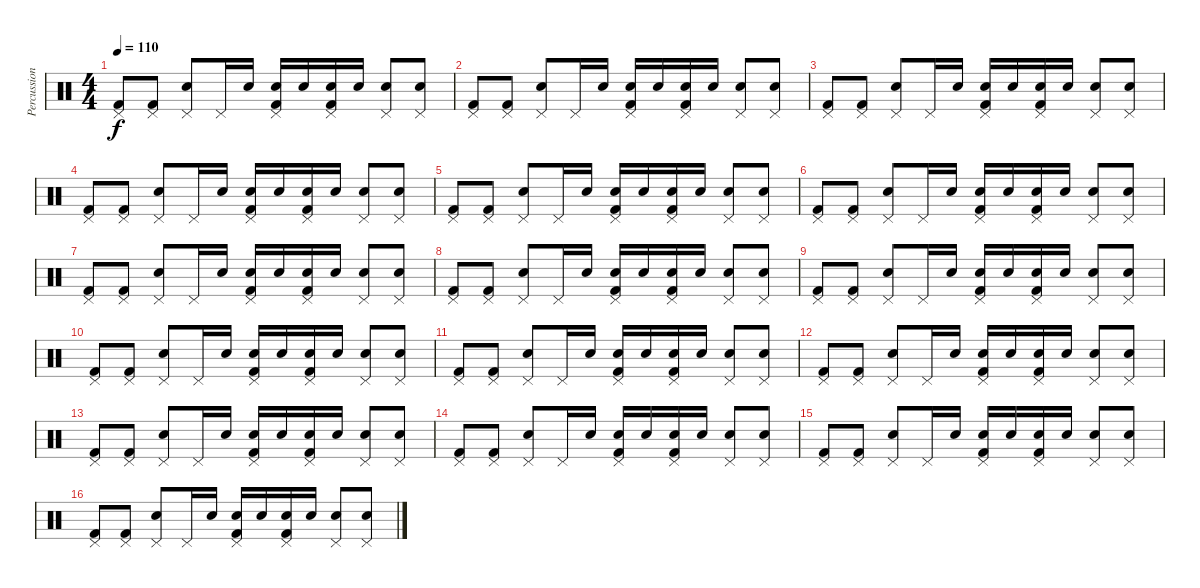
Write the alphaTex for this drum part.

\track ("Percussions" "Percussion") {instrument percussion}
\staff {score}
\articulation defaults
\ts (4 4)
\tempo 110
\clef neutral
\ks c
("Pedal Hi-Hat (hit)" "Kick (hit) 2").8{dy f} ("Pedal Hi-Hat (hit)" "Kick (hit) 2").8 ("Pedal Hi-Hat (hit)" "Electric Snare (hit)").8 "Pedal Hi-Hat (hit)".16 "Electric Snare (hit)".16 ("Pedal Hi-Hat (hit)" "Snare (hit) 2" "Kick (hit) 2").16 "Electric Snare (hit)".16 ("Pedal Hi-Hat (hit)" "Snare (hit) 2" "Kick (hit) 2").16 "Electric Snare (hit)".16 ("Pedal Hi-Hat (hit)" "Electric Snare (hit)").8 ("Pedal Hi-Hat (hit)" "Electric Snare (hit)").8 |
("Pedal Hi-Hat (hit)" "Kick (hit) 2").8 ("Pedal Hi-Hat (hit)" "Kick (hit) 2").8 ("Pedal Hi-Hat (hit)" "Electric Snare (hit)").8 "Pedal Hi-Hat (hit)".16 "Electric Snare (hit)".16 ("Pedal Hi-Hat (hit)" "Snare (hit) 2" "Kick (hit) 2").16 "Electric Snare (hit)".16 ("Pedal Hi-Hat (hit)" "Snare (hit) 2" "Kick (hit) 2").16 "Electric Snare (hit)".16 ("Pedal Hi-Hat (hit)" "Electric Snare (hit)").8 ("Pedal Hi-Hat (hit)" "Electric Snare (hit)").8 |
("Pedal Hi-Hat (hit)" "Kick (hit) 2").8 ("Pedal Hi-Hat (hit)" "Kick (hit) 2").8 ("Pedal Hi-Hat (hit)" "Electric Snare (hit)").8 "Pedal Hi-Hat (hit)".16 "Electric Snare (hit)".16 ("Pedal Hi-Hat (hit)" "Snare (hit) 2" "Kick (hit) 2").16 "Electric Snare (hit)".16 ("Pedal Hi-Hat (hit)" "Snare (hit) 2" "Kick (hit) 2").16 "Electric Snare (hit)".16 ("Pedal Hi-Hat (hit)" "Electric Snare (hit)").8 ("Pedal Hi-Hat (hit)" "Electric Snare (hit)").8 |
("Pedal Hi-Hat (hit)" "Kick (hit) 2").8 ("Pedal Hi-Hat (hit)" "Kick (hit) 2").8 ("Pedal Hi-Hat (hit)" "Electric Snare (hit)").8 "Pedal Hi-Hat (hit)".16 "Electric Snare (hit)".16 ("Pedal Hi-Hat (hit)" "Snare (hit) 2" "Kick (hit) 2").16 "Electric Snare (hit)".16 ("Pedal Hi-Hat (hit)" "Snare (hit) 2" "Kick (hit) 2").16 "Electric Snare (hit)".16 ("Pedal Hi-Hat (hit)" "Electric Snare (hit)").8 ("Pedal Hi-Hat (hit)" "Electric Snare (hit)").8 |
("Pedal Hi-Hat (hit)" "Kick (hit) 2").8 ("Pedal Hi-Hat (hit)" "Kick (hit) 2").8 ("Pedal Hi-Hat (hit)" "Electric Snare (hit)").8 "Pedal Hi-Hat (hit)".16 "Electric Snare (hit)".16 ("Pedal Hi-Hat (hit)" "Snare (hit) 2" "Kick (hit) 2").16 "Electric Snare (hit)".16 ("Pedal Hi-Hat (hit)" "Snare (hit) 2" "Kick (hit) 2").16 "Electric Snare (hit)".16 ("Pedal Hi-Hat (hit)" "Electric Snare (hit)").8 ("Pedal Hi-Hat (hit)" "Electric Snare (hit)").8 |
("Pedal Hi-Hat (hit)" "Kick (hit) 2").8 ("Pedal Hi-Hat (hit)" "Kick (hit) 2").8 ("Pedal Hi-Hat (hit)" "Electric Snare (hit)").8 "Pedal Hi-Hat (hit)".16 "Electric Snare (hit)".16 ("Pedal Hi-Hat (hit)" "Snare (hit) 2" "Kick (hit) 2").16 "Electric Snare (hit)".16 ("Pedal Hi-Hat (hit)" "Snare (hit) 2" "Kick (hit) 2").16 "Electric Snare (hit)".16 ("Pedal Hi-Hat (hit)" "Electric Snare (hit)").8 ("Pedal Hi-Hat (hit)" "Electric Snare (hit)").8 |
("Pedal Hi-Hat (hit)" "Kick (hit) 2").8 ("Pedal Hi-Hat (hit)" "Kick (hit) 2").8 ("Pedal Hi-Hat (hit)" "Electric Snare (hit)").8 "Pedal Hi-Hat (hit)".16 "Electric Snare (hit)".16 ("Pedal Hi-Hat (hit)" "Snare (hit) 2" "Kick (hit) 2").16 "Electric Snare (hit)".16 ("Pedal Hi-Hat (hit)" "Snare (hit) 2" "Kick (hit) 2").16 "Electric Snare (hit)".16 ("Pedal Hi-Hat (hit)" "Electric Snare (hit)").8 ("Pedal Hi-Hat (hit)" "Electric Snare (hit)").8 |
("Pedal Hi-Hat (hit)" "Kick (hit) 2").8 ("Pedal Hi-Hat (hit)" "Kick (hit) 2").8 ("Pedal Hi-Hat (hit)" "Electric Snare (hit)").8 "Pedal Hi-Hat (hit)".16 "Electric Snare (hit)".16 ("Pedal Hi-Hat (hit)" "Snare (hit) 2" "Kick (hit) 2").16 "Electric Snare (hit)".16 ("Pedal Hi-Hat (hit)" "Snare (hit) 2" "Kick (hit) 2").16 "Electric Snare (hit)".16 ("Pedal Hi-Hat (hit)" "Electric Snare (hit)").8 ("Pedal Hi-Hat (hit)" "Electric Snare (hit)").8 |
("Pedal Hi-Hat (hit)" "Kick (hit) 2").8 ("Pedal Hi-Hat (hit)" "Kick (hit) 2").8 ("Pedal Hi-Hat (hit)" "Electric Snare (hit)").8 "Pedal Hi-Hat (hit)".16 "Electric Snare (hit)".16 ("Pedal Hi-Hat (hit)" "Snare (hit) 2" "Kick (hit) 2").16 "Electric Snare (hit)".16 ("Pedal Hi-Hat (hit)" "Snare (hit) 2" "Kick (hit) 2").16 "Electric Snare (hit)".16 ("Pedal Hi-Hat (hit)" "Electric Snare (hit)").8 ("Pedal Hi-Hat (hit)" "Electric Snare (hit)").8 |
("Pedal Hi-Hat (hit)" "Kick (hit) 2").8 ("Pedal Hi-Hat (hit)" "Kick (hit) 2").8 ("Pedal Hi-Hat (hit)" "Electric Snare (hit)").8 "Pedal Hi-Hat (hit)".16 "Electric Snare (hit)".16 ("Pedal Hi-Hat (hit)" "Snare (hit) 2" "Kick (hit) 2").16 "Electric Snare (hit)".16 ("Pedal Hi-Hat (hit)" "Snare (hit) 2" "Kick (hit) 2").16 "Electric Snare (hit)".16 ("Pedal Hi-Hat (hit)" "Electric Snare (hit)").8 ("Pedal Hi-Hat (hit)" "Electric Snare (hit)").8 |
("Pedal Hi-Hat (hit)" "Kick (hit) 2").8 ("Pedal Hi-Hat (hit)" "Kick (hit) 2").8 ("Pedal Hi-Hat (hit)" "Electric Snare (hit)").8 "Pedal Hi-Hat (hit)".16 "Electric Snare (hit)".16 ("Pedal Hi-Hat (hit)" "Snare (hit) 2" "Kick (hit) 2").16 "Electric Snare (hit)".16 ("Pedal Hi-Hat (hit)" "Snare (hit) 2" "Kick (hit) 2").16 "Electric Snare (hit)".16 ("Pedal Hi-Hat (hit)" "Electric Snare (hit)").8 ("Pedal Hi-Hat (hit)" "Electric Snare (hit)").8 |
("Pedal Hi-Hat (hit)" "Kick (hit) 2").8 ("Pedal Hi-Hat (hit)" "Kick (hit) 2").8 ("Pedal Hi-Hat (hit)" "Electric Snare (hit)").8 "Pedal Hi-Hat (hit)".16 "Electric Snare (hit)".16 ("Pedal Hi-Hat (hit)" "Snare (hit) 2" "Kick (hit) 2").16 "Electric Snare (hit)".16 ("Pedal Hi-Hat (hit)" "Snare (hit) 2" "Kick (hit) 2").16 "Electric Snare (hit)".16 ("Pedal Hi-Hat (hit)" "Electric Snare (hit)").8 ("Pedal Hi-Hat (hit)" "Electric Snare (hit)").8 |
("Pedal Hi-Hat (hit)" "Kick (hit) 2").8 ("Pedal Hi-Hat (hit)" "Kick (hit) 2").8 ("Pedal Hi-Hat (hit)" "Electric Snare (hit)").8 "Pedal Hi-Hat (hit)".16 "Electric Snare (hit)".16 ("Pedal Hi-Hat (hit)" "Snare (hit) 2" "Kick (hit) 2").16 "Electric Snare (hit)".16 ("Pedal Hi-Hat (hit)" "Snare (hit) 2" "Kick (hit) 2").16 "Electric Snare (hit)".16 ("Pedal Hi-Hat (hit)" "Electric Snare (hit)").8 ("Pedal Hi-Hat (hit)" "Electric Snare (hit)").8 |
("Pedal Hi-Hat (hit)" "Kick (hit) 2").8 ("Pedal Hi-Hat (hit)" "Kick (hit) 2").8 ("Pedal Hi-Hat (hit)" "Electric Snare (hit)").8 "Pedal Hi-Hat (hit)".16 "Electric Snare (hit)".16 ("Pedal Hi-Hat (hit)" "Snare (hit) 2" "Kick (hit) 2").16 "Electric Snare (hit)".16 ("Pedal Hi-Hat (hit)" "Snare (hit) 2" "Kick (hit) 2").16 "Electric Snare (hit)".16 ("Pedal Hi-Hat (hit)" "Electric Snare (hit)").8 ("Pedal Hi-Hat (hit)" "Electric Snare (hit)").8 |
("Pedal Hi-Hat (hit)" "Kick (hit) 2").8 ("Pedal Hi-Hat (hit)" "Kick (hit) 2").8 ("Pedal Hi-Hat (hit)" "Electric Snare (hit)").8 "Pedal Hi-Hat (hit)".16 "Electric Snare (hit)".16 ("Pedal Hi-Hat (hit)" "Snare (hit) 2" "Kick (hit) 2").16 "Electric Snare (hit)".16 ("Pedal Hi-Hat (hit)" "Snare (hit) 2" "Kick (hit) 2").16 "Electric Snare (hit)".16 ("Pedal Hi-Hat (hit)" "Electric Snare (hit)").8 ("Pedal Hi-Hat (hit)" "Electric Snare (hit)").8 |
("Pedal Hi-Hat (hit)" "Kick (hit) 2").8 ("Pedal Hi-Hat (hit)" "Kick (hit) 2").8 ("Pedal Hi-Hat (hit)" "Electric Snare (hit)").8 "Pedal Hi-Hat (hit)".16 "Electric Snare (hit)".16 ("Pedal Hi-Hat (hit)" "Snare (hit) 2" "Kick (hit) 2").16 "Electric Snare (hit)".16 ("Pedal Hi-Hat (hit)" "Snare (hit) 2" "Kick (hit) 2").16 "Electric Snare (hit)".16 ("Pedal Hi-Hat (hit)" "Electric Snare (hit)").8 ("Pedal Hi-Hat (hit)" "Electric Snare (hit)").8
